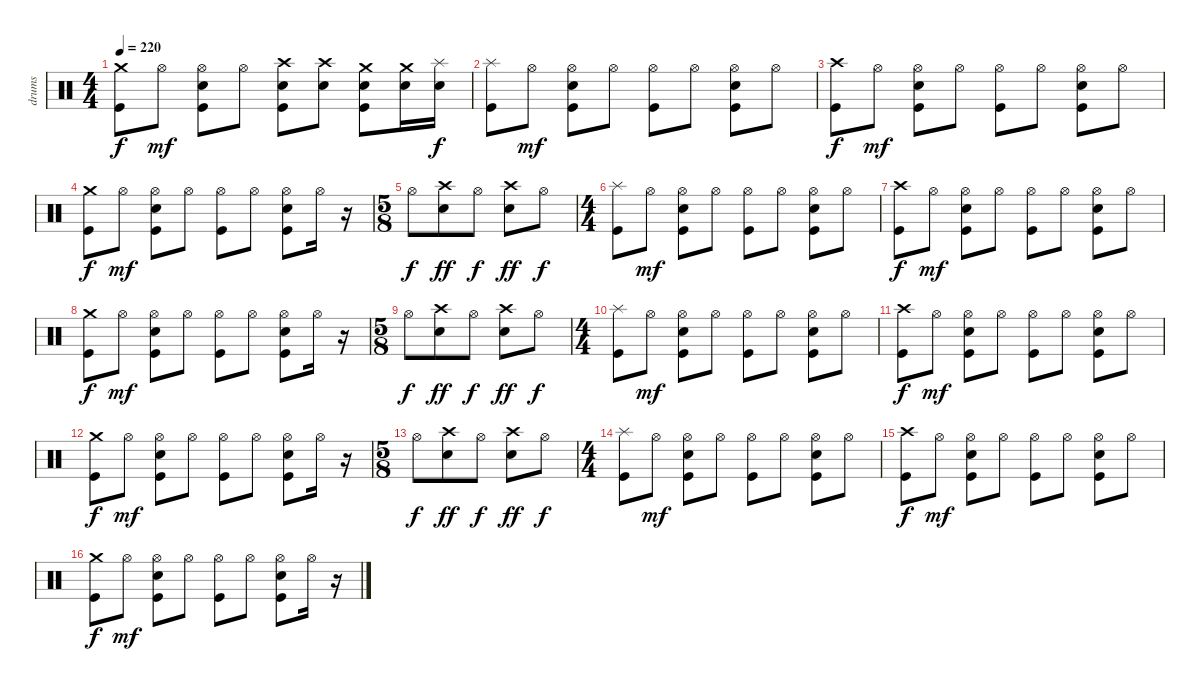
\track ("drums" "drums") {instrument percussion}
\staff {score}
\articulation defaults
\ts (4 4)
\tempo 220
\clef neutral
\ks c
("Crash medium (hit)" "Kick (hit)").8{dy f} "Hi-Hat (open)".8{dy mf} ("Hi-Hat (open)" "Electric Snare (hit)" "Kick (hit)").8 "Hi-Hat (open)".8 ("Crash high (hit)" "Electric Snare (hit)" "Kick (hit)").8 ("Crash high (hit)" "Electric Snare (hit)").8 ("Crash medium (hit)" "Electric Snare (hit)" "Kick (hit)").8 ("Crash medium (hit)" "Electric Snare (hit)").16 ("Splash (hit)" "Electric Snare (hit)").16{dy f} |
("Splash (hit)" "Kick (hit)").8 "Hi-Hat (open)".8{dy mf} ("Hi-Hat (open)" "Snare (hit) 2" "Kick (hit)").8 "Hi-Hat (open)".8 ("Hi-Hat (open)" "Kick (hit)").8 "Hi-Hat (open)".8 ("Hi-Hat (open)" "Snare (hit) 2" "Kick (hit)").8 "Hi-Hat (open)".8 |
("Crash high (hit)" "Kick (hit)").8{dy f} "Hi-Hat (open)".8{dy mf} ("Hi-Hat (open)" "Snare (hit) 2" "Kick (hit)").8 "Hi-Hat (open)".8 ("Hi-Hat (open)" "Kick (hit)").8 "Hi-Hat (open)".8 ("Hi-Hat (open)" "Snare (hit) 2" "Kick (hit)").8 "Hi-Hat (open)".8 |
("Crash medium (hit)" "Kick (hit)").8{dy f} "Hi-Hat (open)".8{dy mf} ("Hi-Hat (open)" "Snare (hit) 2" "Kick (hit)").8 "Hi-Hat (open)".8 ("Hi-Hat (open)" "Kick (hit)").8 "Hi-Hat (open)".8 ("Hi-Hat (open)" "Snare (hit) 2" "Kick (hit)").8 "Hi-Hat (open)".16 r.16 |
\ts (5 8)
"Hi-Hat (open)".8{dy f} ("Crash high (hit)" "Snare (hit) 2").8{dy ff} "Hi-Hat (open)".8{dy f} ("Crash high (hit)" "Snare (hit) 2").8{dy ff} "Hi-Hat (open)".8{dy f} |
\ts (4 4)
("Splash (hit)" "Kick (hit)").8 "Hi-Hat (open)".8{dy mf} ("Hi-Hat (open)" "Snare (hit) 2" "Kick (hit)").8 "Hi-Hat (open)".8 ("Hi-Hat (open)" "Kick (hit)").8 "Hi-Hat (open)".8 ("Hi-Hat (open)" "Snare (hit) 2" "Kick (hit)").8 "Hi-Hat (open)".8 |
("Crash high (hit)" "Kick (hit)").8{dy f} "Hi-Hat (open)".8{dy mf} ("Hi-Hat (open)" "Snare (hit) 2" "Kick (hit)").8 "Hi-Hat (open)".8 ("Hi-Hat (open)" "Kick (hit)").8 "Hi-Hat (open)".8 ("Hi-Hat (open)" "Snare (hit) 2" "Kick (hit)").8 "Hi-Hat (open)".8 |
("Crash medium (hit)" "Kick (hit)").8{dy f} "Hi-Hat (open)".8{dy mf} ("Hi-Hat (open)" "Snare (hit) 2" "Kick (hit)").8 "Hi-Hat (open)".8 ("Hi-Hat (open)" "Kick (hit)").8 "Hi-Hat (open)".8 ("Hi-Hat (open)" "Snare (hit) 2" "Kick (hit)").8 "Hi-Hat (open)".16 r.16 |
\ts (5 8)
"Hi-Hat (open)".8{dy f} ("Crash high (hit)" "Snare (hit) 2").8{dy ff} "Hi-Hat (open)".8{dy f} ("Crash high (hit)" "Snare (hit) 2").8{dy ff} "Hi-Hat (open)".8{dy f} |
\ts (4 4)
("Splash (hit)" "Kick (hit)").8 "Hi-Hat (open)".8{dy mf} ("Hi-Hat (open)" "Snare (hit) 2" "Kick (hit)").8 "Hi-Hat (open)".8 ("Hi-Hat (open)" "Kick (hit)").8 "Hi-Hat (open)".8 ("Hi-Hat (open)" "Snare (hit) 2" "Kick (hit)").8 "Hi-Hat (open)".8 |
("Crash high (hit)" "Kick (hit)").8{dy f} "Hi-Hat (open)".8{dy mf} ("Hi-Hat (open)" "Snare (hit) 2" "Kick (hit)").8 "Hi-Hat (open)".8 ("Hi-Hat (open)" "Kick (hit)").8 "Hi-Hat (open)".8 ("Hi-Hat (open)" "Snare (hit) 2" "Kick (hit)").8 "Hi-Hat (open)".8 |
("Crash medium (hit)" "Kick (hit)").8{dy f} "Hi-Hat (open)".8{dy mf} ("Hi-Hat (open)" "Snare (hit) 2" "Kick (hit)").8 "Hi-Hat (open)".8 ("Hi-Hat (open)" "Kick (hit)").8 "Hi-Hat (open)".8 ("Hi-Hat (open)" "Snare (hit) 2" "Kick (hit)").8 "Hi-Hat (open)".16 r.16 |
\ts (5 8)
"Hi-Hat (open)".8{dy f} ("Crash high (hit)" "Snare (hit) 2").8{dy ff} "Hi-Hat (open)".8{dy f} ("Crash high (hit)" "Snare (hit) 2").8{dy ff} "Hi-Hat (open)".8{dy f} |
\ts (4 4)
("Splash (hit)" "Kick (hit)").8 "Hi-Hat (open)".8{dy mf} ("Hi-Hat (open)" "Snare (hit) 2" "Kick (hit)").8 "Hi-Hat (open)".8 ("Hi-Hat (open)" "Kick (hit)").8 "Hi-Hat (open)".8 ("Hi-Hat (open)" "Snare (hit) 2" "Kick (hit)").8 "Hi-Hat (open)".8 |
("Crash high (hit)" "Kick (hit)").8{dy f} "Hi-Hat (open)".8{dy mf} ("Hi-Hat (open)" "Snare (hit) 2" "Kick (hit)").8 "Hi-Hat (open)".8 ("Hi-Hat (open)" "Kick (hit)").8 "Hi-Hat (open)".8 ("Hi-Hat (open)" "Snare (hit) 2" "Kick (hit)").8 "Hi-Hat (open)".8 |
("Crash medium (hit)" "Kick (hit)").8{dy f} "Hi-Hat (open)".8{dy mf} ("Hi-Hat (open)" "Snare (hit) 2" "Kick (hit)").8 "Hi-Hat (open)".8 ("Hi-Hat (open)" "Kick (hit)").8 "Hi-Hat (open)".8 ("Hi-Hat (open)" "Snare (hit) 2" "Kick (hit)").8 "Hi-Hat (open)".16 r.16
